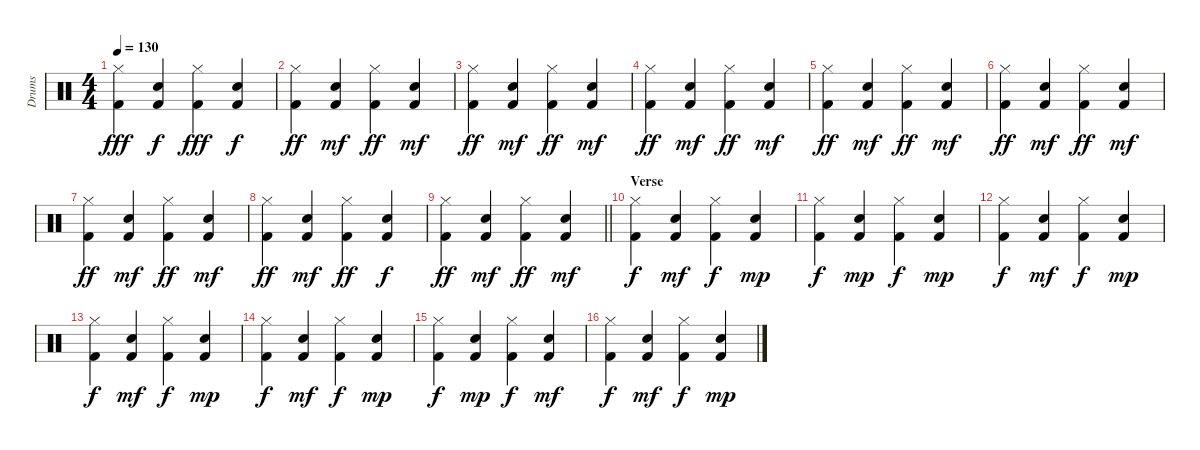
\track ("Drums" "Drums") {instrument percussion}
\staff {score}
\articulation defaults
\ts (4 4)
\tempo 130
\clef neutral
\ks c
("Kick (hit) 2" "Hi-Hat (closed)").4{dy fff} ("Kick (hit) 2" "Snare (hit) 2").4{dy f} ("Kick (hit) 2" "Hi-Hat (closed)").4{dy fff} ("Kick (hit) 2" "Snare (hit) 2").4{dy f} |
("Kick (hit) 2" "Hi-Hat (closed)").4{dy ff} ("Kick (hit) 2" "Snare (hit) 2").4{dy mf} ("Kick (hit) 2" "Hi-Hat (closed)").4{dy ff} ("Kick (hit) 2" "Snare (hit) 2").4{dy mf} |
("Kick (hit) 2" "Hi-Hat (closed)").4{dy ff} ("Kick (hit) 2" "Snare (hit) 2").4{dy mf} ("Kick (hit) 2" "Hi-Hat (closed)").4{dy ff} ("Kick (hit) 2" "Snare (hit) 2").4{dy mf} |
("Kick (hit) 2" "Hi-Hat (closed)").4{dy ff} ("Kick (hit) 2" "Snare (hit) 2").4{dy mf} ("Kick (hit) 2" "Hi-Hat (closed)").4{dy ff} ("Kick (hit) 2" "Snare (hit) 2").4{dy mf} |
("Kick (hit) 2" "Hi-Hat (closed)").4{dy ff} ("Kick (hit) 2" "Snare (hit) 2").4{dy mf} ("Kick (hit) 2" "Hi-Hat (closed)").4{dy ff} ("Kick (hit) 2" "Snare (hit) 2").4{dy mf} |
("Kick (hit) 2" "Hi-Hat (closed)").4{dy ff} ("Kick (hit) 2" "Snare (hit) 2").4{dy mf} ("Kick (hit) 2" "Hi-Hat (closed)").4{dy ff} ("Kick (hit) 2" "Snare (hit) 2").4{dy mf} |
("Kick (hit) 2" "Hi-Hat (closed)").4{dy ff} ("Kick (hit) 2" "Snare (hit) 2").4{dy mf} ("Kick (hit) 2" "Hi-Hat (closed)").4{dy ff} ("Kick (hit) 2" "Snare (hit) 2").4{dy mf} |
("Kick (hit) 2" "Hi-Hat (closed)").4{dy ff} ("Kick (hit) 2" "Snare (hit) 2").4{dy mf} ("Kick (hit) 2" "Hi-Hat (closed)").4{dy ff} ("Kick (hit) 2" "Snare (hit) 2").4{dy f} |
\barLineRight lightlight
("Kick (hit) 2" "Hi-Hat (closed)").4{dy ff} ("Kick (hit) 2" "Snare (hit) 2").4{dy mf} ("Kick (hit) 2" "Hi-Hat (closed)").4{dy ff} ("Kick (hit) 2" "Snare (hit) 2").4{dy mf} |
\section ("" "Verse")
("Kick (hit) 2" "Hi-Hat (closed)").4{dy f} ("Kick (hit) 2" "Snare (hit) 2").4{dy mf} ("Kick (hit) 2" "Hi-Hat (closed)").4{dy f} ("Kick (hit) 2" "Snare (hit) 2").4{dy mp} |
("Kick (hit) 2" "Hi-Hat (closed)").4{dy f} ("Kick (hit) 2" "Snare (hit) 2").4{dy mp} ("Kick (hit) 2" "Hi-Hat (closed)").4{dy f} ("Kick (hit) 2" "Snare (hit) 2").4{dy mp} |
("Kick (hit) 2" "Hi-Hat (closed)").4{dy f} ("Kick (hit) 2" "Snare (hit) 2").4{dy mf} ("Kick (hit) 2" "Hi-Hat (closed)").4{dy f} ("Kick (hit) 2" "Snare (hit) 2").4{dy mp} |
("Kick (hit) 2" "Hi-Hat (closed)").4{dy f} ("Kick (hit) 2" "Snare (hit) 2").4{dy mf} ("Kick (hit) 2" "Hi-Hat (closed)").4{dy f} ("Kick (hit) 2" "Snare (hit) 2").4{dy mp} |
("Kick (hit) 2" "Hi-Hat (closed)").4{dy f} ("Kick (hit) 2" "Snare (hit) 2").4{dy mf} ("Kick (hit) 2" "Hi-Hat (closed)").4{dy f} ("Kick (hit) 2" "Snare (hit) 2").4{dy mp} |
("Kick (hit) 2" "Hi-Hat (closed)").4{dy f} ("Kick (hit) 2" "Snare (hit) 2").4{dy mp} ("Kick (hit) 2" "Hi-Hat (closed)").4{dy f} ("Kick (hit) 2" "Snare (hit) 2").4{dy mf} |
("Kick (hit) 2" "Hi-Hat (closed)").4{dy f} ("Kick (hit) 2" "Snare (hit) 2").4{dy mf} ("Kick (hit) 2" "Hi-Hat (closed)").4{dy f} ("Kick (hit) 2" "Snare (hit) 2").4{dy mp}
